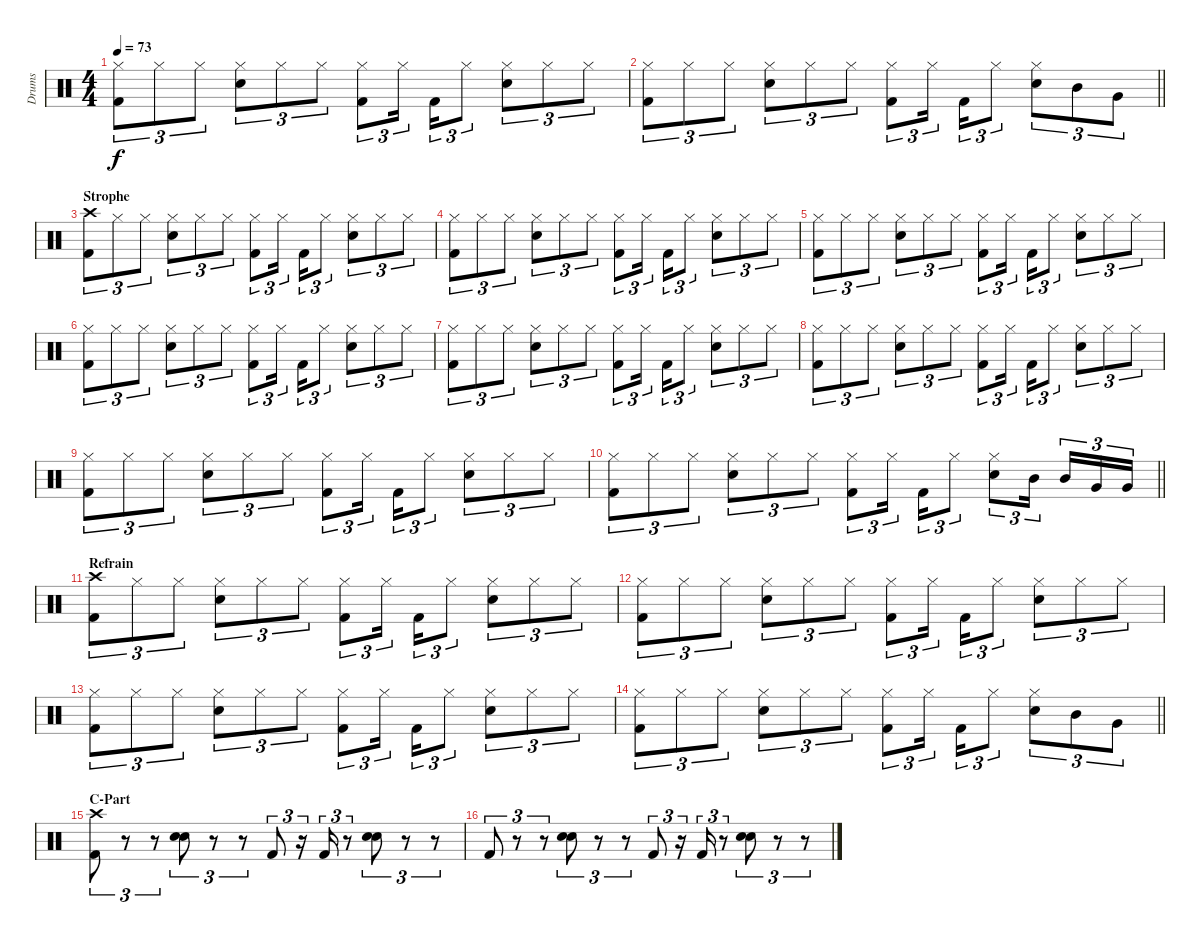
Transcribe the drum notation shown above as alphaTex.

\track ("Drums" "Drums") {instrument percussion}
\staff {score}
\articulation defaults
\ts (4 4)
\tempo 73
\clef neutral
\ks c
("Hi-Hat (closed)" "Kick (hit) 2").8{tu (3 2) dy f} "Hi-Hat (closed)".8{tu (3 2)} "Hi-Hat (closed)".8{tu (3 2)} ("Hi-Hat (closed)" "Snare (hit) 2").8{tu (3 2)} "Hi-Hat (closed)".8{tu (3 2)} "Hi-Hat (closed)".8{tu (3 2)} ("Hi-Hat (closed)" "Kick (hit) 2").8{tu (3 2)} "Hi-Hat (closed)".16{tu (3 2) beam splitsecondary} "Kick (hit) 2".16{tu (3 2)} "Hi-Hat (closed)".8{tu (3 2)} ("Hi-Hat (closed)" "Snare (hit) 2").8{tu (3 2)} "Hi-Hat (closed)".8{tu (3 2)} "Hi-Hat (closed)".8{tu (3 2)} |
\barLineRight lightlight
("Hi-Hat (closed)" "Kick (hit) 2").8{tu (3 2)} "Hi-Hat (closed)".8{tu (3 2)} "Hi-Hat (closed)".8{tu (3 2)} ("Hi-Hat (closed)" "Snare (hit) 2").8{tu (3 2)} "Hi-Hat (closed)".8{tu (3 2)} "Hi-Hat (closed)".8{tu (3 2)} ("Hi-Hat (closed)" "Kick (hit) 2").8{tu (3 2)} "Hi-Hat (closed)".16{tu (3 2) beam splitsecondary} "Kick (hit) 2".16{tu (3 2)} "Hi-Hat (closed)".8{tu (3 2)} ("Hi-Hat (closed)" "Snare (hit) 2").8{tu (3 2)} "Mid Tom (hit)".8{tu (3 2)} "Very Low Tom (hit)".8{tu (3 2)} |
\section ("" "Strophe")
("Crash high (hit)" "Kick (hit) 2").8{tu (3 2)} "Hi-Hat (closed)".8{tu (3 2)} "Hi-Hat (closed)".8{tu (3 2)} ("Hi-Hat (closed)" "Snare (hit) 2").8{tu (3 2)} "Hi-Hat (closed)".8{tu (3 2)} "Hi-Hat (closed)".8{tu (3 2)} ("Hi-Hat (closed)" "Kick (hit) 2").8{tu (3 2)} "Hi-Hat (closed)".16{tu (3 2) beam splitsecondary} "Kick (hit) 2".16{tu (3 2)} "Hi-Hat (closed)".8{tu (3 2)} ("Hi-Hat (closed)" "Snare (hit) 2").8{tu (3 2)} "Hi-Hat (closed)".8{tu (3 2)} "Hi-Hat (closed)".8{tu (3 2)} |
("Hi-Hat (closed)" "Kick (hit) 2").8{tu (3 2)} "Hi-Hat (closed)".8{tu (3 2)} "Hi-Hat (closed)".8{tu (3 2)} ("Hi-Hat (closed)" "Snare (hit) 2").8{tu (3 2)} "Hi-Hat (closed)".8{tu (3 2)} "Hi-Hat (closed)".8{tu (3 2)} ("Hi-Hat (closed)" "Kick (hit) 2").8{tu (3 2)} "Hi-Hat (closed)".16{tu (3 2) beam splitsecondary} "Kick (hit) 2".16{tu (3 2)} "Hi-Hat (closed)".8{tu (3 2)} ("Hi-Hat (closed)" "Snare (hit) 2").8{tu (3 2)} "Hi-Hat (closed)".8{tu (3 2)} "Hi-Hat (closed)".8{tu (3 2)} |
("Hi-Hat (closed)" "Kick (hit) 2").8{tu (3 2)} "Hi-Hat (closed)".8{tu (3 2)} "Hi-Hat (closed)".8{tu (3 2)} ("Hi-Hat (closed)" "Snare (hit) 2").8{tu (3 2)} "Hi-Hat (closed)".8{tu (3 2)} "Hi-Hat (closed)".8{tu (3 2)} ("Hi-Hat (closed)" "Kick (hit) 2").8{tu (3 2)} "Hi-Hat (closed)".16{tu (3 2) beam splitsecondary} "Kick (hit) 2".16{tu (3 2)} "Hi-Hat (closed)".8{tu (3 2)} ("Hi-Hat (closed)" "Snare (hit) 2").8{tu (3 2)} "Hi-Hat (closed)".8{tu (3 2)} "Hi-Hat (closed)".8{tu (3 2)} |
("Hi-Hat (closed)" "Kick (hit) 2").8{tu (3 2)} "Hi-Hat (closed)".8{tu (3 2)} "Hi-Hat (closed)".8{tu (3 2)} ("Hi-Hat (closed)" "Snare (hit) 2").8{tu (3 2)} "Hi-Hat (closed)".8{tu (3 2)} "Hi-Hat (closed)".8{tu (3 2)} ("Hi-Hat (closed)" "Kick (hit) 2").8{tu (3 2)} "Hi-Hat (closed)".16{tu (3 2) beam splitsecondary} "Kick (hit) 2".16{tu (3 2)} "Hi-Hat (closed)".8{tu (3 2)} ("Hi-Hat (closed)" "Snare (hit) 2").8{tu (3 2)} "Hi-Hat (closed)".8{tu (3 2)} "Hi-Hat (closed)".8{tu (3 2)} |
("Hi-Hat (closed)" "Kick (hit) 2").8{tu (3 2)} "Hi-Hat (closed)".8{tu (3 2)} "Hi-Hat (closed)".8{tu (3 2)} ("Hi-Hat (closed)" "Snare (hit) 2").8{tu (3 2)} "Hi-Hat (closed)".8{tu (3 2)} "Hi-Hat (closed)".8{tu (3 2)} ("Hi-Hat (closed)" "Kick (hit) 2").8{tu (3 2)} "Hi-Hat (closed)".16{tu (3 2) beam splitsecondary} "Kick (hit) 2".16{tu (3 2)} "Hi-Hat (closed)".8{tu (3 2)} ("Hi-Hat (closed)" "Snare (hit) 2").8{tu (3 2)} "Hi-Hat (closed)".8{tu (3 2)} "Hi-Hat (closed)".8{tu (3 2)} |
("Hi-Hat (closed)" "Kick (hit) 2").8{tu (3 2)} "Hi-Hat (closed)".8{tu (3 2)} "Hi-Hat (closed)".8{tu (3 2)} ("Hi-Hat (closed)" "Snare (hit) 2").8{tu (3 2)} "Hi-Hat (closed)".8{tu (3 2)} "Hi-Hat (closed)".8{tu (3 2)} ("Hi-Hat (closed)" "Kick (hit) 2").8{tu (3 2)} "Hi-Hat (closed)".16{tu (3 2) beam splitsecondary} "Kick (hit) 2".16{tu (3 2)} "Hi-Hat (closed)".8{tu (3 2)} ("Hi-Hat (closed)" "Snare (hit) 2").8{tu (3 2)} "Hi-Hat (closed)".8{tu (3 2)} "Hi-Hat (closed)".8{tu (3 2)} |
("Hi-Hat (closed)" "Kick (hit) 2").8{tu (3 2)} "Hi-Hat (closed)".8{tu (3 2)} "Hi-Hat (closed)".8{tu (3 2)} ("Hi-Hat (closed)" "Snare (hit) 2").8{tu (3 2)} "Hi-Hat (closed)".8{tu (3 2)} "Hi-Hat (closed)".8{tu (3 2)} ("Hi-Hat (closed)" "Kick (hit) 2").8{tu (3 2)} "Hi-Hat (closed)".16{tu (3 2) beam splitsecondary} "Kick (hit) 2".16{tu (3 2)} "Hi-Hat (closed)".8{tu (3 2)} ("Hi-Hat (closed)" "Snare (hit) 2").8{tu (3 2)} "Hi-Hat (closed)".8{tu (3 2)} "Hi-Hat (closed)".8{tu (3 2)} |
\barLineRight lightlight
("Hi-Hat (closed)" "Kick (hit) 2").8{tu (3 2)} "Hi-Hat (closed)".8{tu (3 2)} "Hi-Hat (closed)".8{tu (3 2)} ("Hi-Hat (closed)" "Snare (hit) 2").8{tu (3 2)} "Hi-Hat (closed)".8{tu (3 2)} "Hi-Hat (closed)".8{tu (3 2)} ("Hi-Hat (closed)" "Kick (hit) 2").8{tu (3 2)} "Hi-Hat (closed)".16{tu (3 2) beam splitsecondary} "Kick (hit) 2".16{tu (3 2)} "Hi-Hat (closed)".8{tu (3 2)} ("Hi-Hat (closed)" "Snare (hit) 2").8{tu (3 2)} "Mid Tom (hit)".16{tu (3 2) beam splitsecondary} "Mid Tom (hit)".16{tu (3 2)} "Very Low Tom (hit)".16{tu (3 2)} "Very Low Tom (hit)".16{tu (3 2)} |
\section ("" "Refrain")
("Crash high (hit)" "Kick (hit) 2").8{tu (3 2)} "Hi-Hat (closed)".8{tu (3 2)} "Hi-Hat (closed)".8{tu (3 2)} ("Hi-Hat (closed)" "Snare (hit) 2").8{tu (3 2)} "Hi-Hat (closed)".8{tu (3 2)} "Hi-Hat (closed)".8{tu (3 2)} ("Hi-Hat (closed)" "Kick (hit) 2").8{tu (3 2)} "Hi-Hat (closed)".16{tu (3 2) beam splitsecondary} "Kick (hit) 2".16{tu (3 2)} "Hi-Hat (closed)".8{tu (3 2)} ("Hi-Hat (closed)" "Snare (hit) 2").8{tu (3 2)} "Hi-Hat (closed)".8{tu (3 2)} "Hi-Hat (closed)".8{tu (3 2)} |
("Hi-Hat (closed)" "Kick (hit) 2").8{tu (3 2)} "Hi-Hat (closed)".8{tu (3 2)} "Hi-Hat (closed)".8{tu (3 2)} ("Hi-Hat (closed)" "Snare (hit) 2").8{tu (3 2)} "Hi-Hat (closed)".8{tu (3 2)} "Hi-Hat (closed)".8{tu (3 2)} ("Hi-Hat (closed)" "Kick (hit) 2").8{tu (3 2)} "Hi-Hat (closed)".16{tu (3 2) beam splitsecondary} "Kick (hit) 2".16{tu (3 2)} "Hi-Hat (closed)".8{tu (3 2)} ("Hi-Hat (closed)" "Snare (hit) 2").8{tu (3 2)} "Hi-Hat (closed)".8{tu (3 2)} "Hi-Hat (closed)".8{tu (3 2)} |
("Hi-Hat (closed)" "Kick (hit) 2").8{tu (3 2)} "Hi-Hat (closed)".8{tu (3 2)} "Hi-Hat (closed)".8{tu (3 2)} ("Hi-Hat (closed)" "Snare (hit) 2").8{tu (3 2)} "Hi-Hat (closed)".8{tu (3 2)} "Hi-Hat (closed)".8{tu (3 2)} ("Hi-Hat (closed)" "Kick (hit) 2").8{tu (3 2)} "Hi-Hat (closed)".16{tu (3 2) beam splitsecondary} "Kick (hit) 2".16{tu (3 2)} "Hi-Hat (closed)".8{tu (3 2)} ("Hi-Hat (closed)" "Snare (hit) 2").8{tu (3 2)} "Hi-Hat (closed)".8{tu (3 2)} "Hi-Hat (closed)".8{tu (3 2)} |
\barLineRight lightlight
("Hi-Hat (closed)" "Kick (hit) 2").8{tu (3 2)} "Hi-Hat (closed)".8{tu (3 2)} "Hi-Hat (closed)".8{tu (3 2)} ("Hi-Hat (closed)" "Snare (hit) 2").8{tu (3 2)} "Hi-Hat (closed)".8{tu (3 2)} "Hi-Hat (closed)".8{tu (3 2)} ("Hi-Hat (closed)" "Kick (hit) 2").8{tu (3 2)} "Hi-Hat (closed)".16{tu (3 2) beam splitsecondary} "Kick (hit) 2".16{tu (3 2)} "Hi-Hat (closed)".8{tu (3 2)} ("Hi-Hat (closed)" "Snare (hit) 2").8{tu (3 2)} "Mid Tom (hit)".8{tu (3 2)} "Very Low Tom (hit)".8{tu (3 2)} |
\section ("" "C-Part")
("Crash high (hit)" "Kick (hit) 2").8{tu (3 2)} r.8{tu (3 2)} r.8{tu (3 2)} ("Snare (hit) 2" "Electric Snare (hit)").8{tu (3 2)} r.8{tu (3 2)} r.8{tu (3 2)} "Kick (hit) 2".8{tu (3 2)} r.16{tu (3 2)} "Kick (hit) 2".16{tu (3 2)} r.8{tu (3 2)} ("Snare (hit) 2" "Electric Snare (hit)").8{tu (3 2)} r.8{tu (3 2)} r.8{tu (3 2)} |
"Kick (hit) 2".8{tu (3 2)} r.8{tu (3 2)} r.8{tu (3 2)} ("Snare (hit) 2" "Electric Snare (hit)").8{tu (3 2)} r.8{tu (3 2)} r.8{tu (3 2)} "Kick (hit) 2".8{tu (3 2)} r.16{tu (3 2)} "Kick (hit) 2".16{tu (3 2)} r.8{tu (3 2)} ("Snare (hit) 2" "Electric Snare (hit)").8{tu (3 2)} r.8{tu (3 2)} r.8{tu (3 2)}
